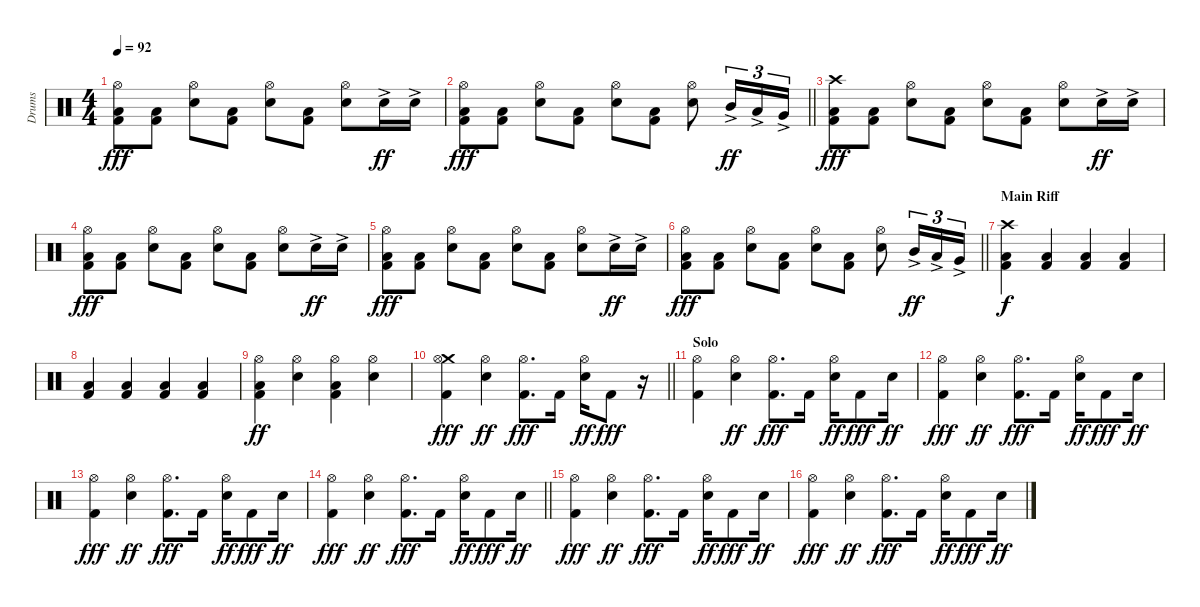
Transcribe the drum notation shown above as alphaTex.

\track ("Drums" "Drums") {instrument percussion}
\staff {score}
\articulation defaults
\ts (4 4)
\tempo 92
\clef neutral
\ks c
("Hi-Hat (open)" "Low Floor Tom (hit)" "Kick (hit) 2").8{dy fff} ("Low Floor Tom (hit)" "Kick (hit) 2").8 ("Hi-Hat (open)" "Electric Snare (hit)").8 ("Low Floor Tom (hit)" "Kick (hit) 2").8 ("Hi-Hat (open)" "Electric Snare (hit)").8 ("Low Floor Tom (hit)" "Kick (hit) 2").8 ("Hi-Hat (open)" "Electric Snare (hit)").8 "Electric Snare (hit)"{ac}.16{dy ff} "Electric Snare (hit)"{ac}.16 |
\barLineRight lightlight
("Hi-Hat (open)" "Low Floor Tom (hit)" "Kick (hit) 2").8{dy fff} ("Low Floor Tom (hit)" "Kick (hit) 2").8 ("Hi-Hat (open)" "Electric Snare (hit)").8 ("Low Floor Tom (hit)" "Kick (hit) 2").8 ("Hi-Hat (open)" "Electric Snare (hit)").8 ("Low Floor Tom (hit)" "Kick (hit) 2").8 ("Hi-Hat (open)" "Electric Snare (hit)").8 "Mid Tom (hit)"{ac}.16{tu (3 2) dy ff} "Low Tom (hit)"{ac}.16{tu (3 2)} "Very Low Tom (hit)"{ac}.16{tu (3 2)} |
\section ("" "")
("Crash high (hit)" "Low Floor Tom (hit)" "Kick (hit) 2").8{dy fff} ("Low Floor Tom (hit)" "Kick (hit) 2").8 ("Hi-Hat (open)" "Electric Snare (hit)").8 ("Low Floor Tom (hit)" "Kick (hit) 2").8 ("Hi-Hat (open)" "Electric Snare (hit)").8 ("Low Floor Tom (hit)" "Kick (hit) 2").8 ("Hi-Hat (open)" "Electric Snare (hit)").8 "Electric Snare (hit)"{ac}.16{dy ff} "Electric Snare (hit)"{ac}.16 |
("Hi-Hat (open)" "Low Floor Tom (hit)" "Kick (hit) 2").8{dy fff} ("Low Floor Tom (hit)" "Kick (hit) 2").8 ("Hi-Hat (open)" "Electric Snare (hit)").8 ("Low Floor Tom (hit)" "Kick (hit) 2").8 ("Hi-Hat (open)" "Electric Snare (hit)").8 ("Low Floor Tom (hit)" "Kick (hit) 2").8 ("Hi-Hat (open)" "Electric Snare (hit)").8 "Electric Snare (hit)"{ac}.16{dy ff} "Electric Snare (hit)"{ac}.16 |
("Hi-Hat (open)" "Low Floor Tom (hit)" "Kick (hit) 2").8{dy fff} ("Low Floor Tom (hit)" "Kick (hit) 2").8 ("Hi-Hat (open)" "Electric Snare (hit)").8 ("Low Floor Tom (hit)" "Kick (hit) 2").8 ("Hi-Hat (open)" "Electric Snare (hit)").8 ("Low Floor Tom (hit)" "Kick (hit) 2").8 ("Hi-Hat (open)" "Electric Snare (hit)").8 "Electric Snare (hit)"{ac}.16{dy ff} "Electric Snare (hit)"{ac}.16 |
\barLineRight lightlight
("Hi-Hat (open)" "Low Floor Tom (hit)" "Kick (hit) 2").8{dy fff} ("Low Floor Tom (hit)" "Kick (hit) 2").8 ("Hi-Hat (open)" "Electric Snare (hit)").8 ("Low Floor Tom (hit)" "Kick (hit) 2").8 ("Hi-Hat (open)" "Electric Snare (hit)").8 ("Low Floor Tom (hit)" "Kick (hit) 2").8 ("Hi-Hat (open)" "Electric Snare (hit)").8 "Mid Tom (hit)"{ac}.16{tu (3 2) dy ff} "Low Tom (hit)"{ac}.16{tu (3 2)} "Very Low Tom (hit)"{ac}.16{tu (3 2)} |
\section ("" "Main Riff ")
("Crash high (hit)" "Low Floor Tom (hit)" "Kick (hit) 2").4{dy f} ("Low Floor Tom (hit)" "Kick (hit) 2").4 ("Low Floor Tom (hit)" "Kick (hit) 2").4 ("Low Floor Tom (hit)" "Kick (hit) 2").4 |
("Low Floor Tom (hit)" "Kick (hit) 2").4 ("Low Floor Tom (hit)" "Kick (hit) 2").4 ("Low Floor Tom (hit)" "Kick (hit) 2").4 ("Low Floor Tom (hit)" "Kick (hit) 2").4 |
("Hi-Hat (open)" "Low Floor Tom (hit)" "Kick (hit) 2").4{dy ff} ("Hi-Hat (open)" "Electric Snare (hit)").4 ("Hi-Hat (open)" "Low Floor Tom (hit)" "Kick (hit) 2").4 ("Hi-Hat (open)" "Electric Snare (hit)").4 |
\barLineRight lightlight
("Crash medium (hit)" "Hi-Hat (open)" "Kick (hit) 2").4{dy fff} ("Hi-Hat (open)" "Electric Snare (hit)").4{dy ff} ("Hi-Hat (open)" "Kick (hit) 2").8{d dy fff} "Kick (hit) 2".16 ("Hi-Hat (open)" "Electric Snare (hit)").16{dy ff} "Kick (hit) 2".8{dy fff} r.16 |
\section ("" "Solo")
("Hi-Hat (open)" "Kick (hit) 2").4 ("Hi-Hat (open)" "Electric Snare (hit)").4{dy ff} ("Hi-Hat (open)" "Kick (hit) 2").8{d dy fff} "Kick (hit) 2".16 ("Hi-Hat (open)" "Electric Snare (hit)").16{dy ff} "Kick (hit) 2".8{dy fff} "Electric Snare (hit)".16{dy ff} |
("Hi-Hat (open)" "Kick (hit) 2").4{dy fff} ("Hi-Hat (open)" "Electric Snare (hit)").4{dy ff} ("Hi-Hat (open)" "Kick (hit) 2").8{d dy fff} "Kick (hit) 2".16 ("Hi-Hat (open)" "Electric Snare (hit)").16{dy ff} "Kick (hit) 2".8{dy fff} "Electric Snare (hit)".16{dy ff} |
("Hi-Hat (open)" "Kick (hit) 2").4{dy fff} ("Hi-Hat (open)" "Electric Snare (hit)").4{dy ff} ("Hi-Hat (open)" "Kick (hit) 2").8{d dy fff} "Kick (hit) 2".16 ("Hi-Hat (open)" "Electric Snare (hit)").16{dy ff} "Kick (hit) 2".8{dy fff} "Electric Snare (hit)".16{dy ff} |
\barLineRight lightlight
("Hi-Hat (open)" "Kick (hit) 2").4{dy fff} ("Hi-Hat (open)" "Electric Snare (hit)").4{dy ff} ("Hi-Hat (open)" "Kick (hit) 2").8{d dy fff} "Kick (hit) 2".16 ("Hi-Hat (open)" "Electric Snare (hit)").16{dy ff} "Kick (hit) 2".8{dy fff} "Electric Snare (hit)".16{dy ff} |
\section ("" "")
("Hi-Hat (open)" "Kick (hit) 2").4{dy fff} ("Hi-Hat (open)" "Electric Snare (hit)").4{dy ff} ("Hi-Hat (open)" "Kick (hit) 2").8{d dy fff} "Kick (hit) 2".16 ("Hi-Hat (open)" "Electric Snare (hit)").16{dy ff} "Kick (hit) 2".8{dy fff} "Electric Snare (hit)".16{dy ff} |
("Hi-Hat (open)" "Kick (hit) 2").4{dy fff} ("Hi-Hat (open)" "Electric Snare (hit)").4{dy ff} ("Hi-Hat (open)" "Kick (hit) 2").8{d dy fff} "Kick (hit) 2".16 ("Hi-Hat (open)" "Electric Snare (hit)").16{dy ff} "Kick (hit) 2".8{dy fff} "Electric Snare (hit)".16{dy ff}
